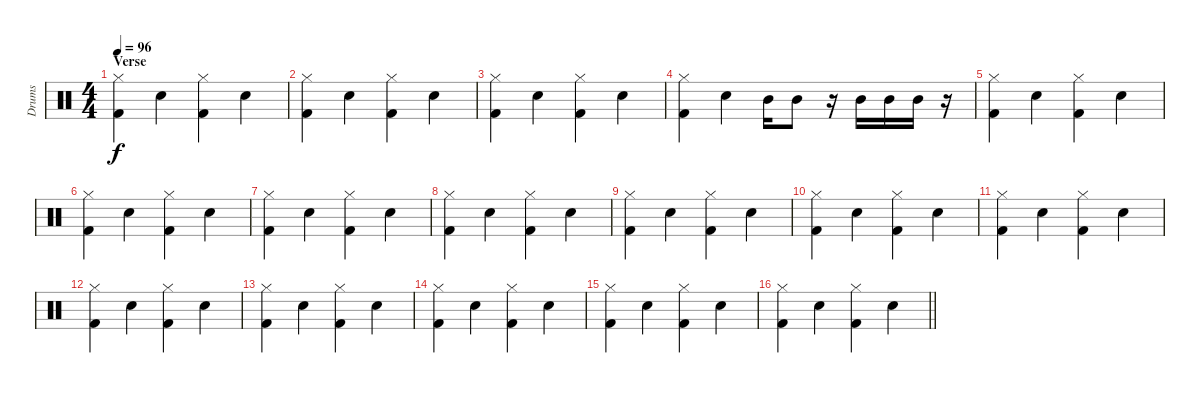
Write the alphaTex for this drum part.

\track ("Drums" "Drums") {instrument percussion}
\staff {score}
\articulation defaults
\ts (4 4)
\section ("" "Verse")
\tempo 96
\clef neutral
\ks c
("Hi-Hat (closed)" "Kick (hit) 2").4{dy f} "Snare (hit) 2".4 ("Hi-Hat (closed)" "Kick (hit) 2").4 "Snare (hit) 2".4 |
("Hi-Hat (closed)" "Kick (hit) 2").4 "Snare (hit) 2".4 ("Hi-Hat (closed)" "Kick (hit) 2").4 "Snare (hit) 2".4 |
("Hi-Hat (closed)" "Kick (hit) 2").4 "Snare (hit) 2".4 ("Hi-Hat (closed)" "Kick (hit) 2").4 "Snare (hit) 2".4 |
("Hi-Hat (closed)" "Kick (hit) 2").4 "Snare (hit) 2".4 "Mid Tom (hit)".16 "Mid Tom (hit)".8 r.16 "Mid Tom (hit)".16 "Mid Tom (hit)".16 "Mid Tom (hit)".16 r.16 |
("Hi-Hat (closed)" "Kick (hit) 2").4 "Snare (hit) 2".4 ("Hi-Hat (closed)" "Kick (hit) 2").4 "Snare (hit) 2".4 |
("Hi-Hat (closed)" "Kick (hit) 2").4 "Snare (hit) 2".4 ("Hi-Hat (closed)" "Kick (hit) 2").4 "Snare (hit) 2".4 |
("Hi-Hat (closed)" "Kick (hit) 2").4 "Snare (hit) 2".4 ("Hi-Hat (closed)" "Kick (hit) 2").4 "Snare (hit) 2".4 |
("Hi-Hat (closed)" "Kick (hit) 2").4 "Snare (hit) 2".4 ("Hi-Hat (closed)" "Kick (hit) 2").4 "Snare (hit) 2".4 |
("Hi-Hat (closed)" "Kick (hit) 2").4 "Snare (hit) 2".4 ("Hi-Hat (closed)" "Kick (hit) 2").4 "Snare (hit) 2".4 |
("Hi-Hat (closed)" "Kick (hit) 2").4 "Snare (hit) 2".4 ("Hi-Hat (closed)" "Kick (hit) 2").4 "Snare (hit) 2".4 |
("Hi-Hat (closed)" "Kick (hit) 2").4 "Snare (hit) 2".4 ("Hi-Hat (closed)" "Kick (hit) 2").4 "Snare (hit) 2".4 |
("Hi-Hat (closed)" "Kick (hit) 2").4 "Snare (hit) 2".4 ("Hi-Hat (closed)" "Kick (hit) 2").4 "Snare (hit) 2".4 |
("Hi-Hat (closed)" "Kick (hit) 2").4 "Snare (hit) 2".4 ("Hi-Hat (closed)" "Kick (hit) 2").4 "Snare (hit) 2".4 |
("Hi-Hat (closed)" "Kick (hit) 2").4 "Snare (hit) 2".4 ("Hi-Hat (closed)" "Kick (hit) 2").4 "Snare (hit) 2".4 |
("Hi-Hat (closed)" "Kick (hit) 2").4 "Snare (hit) 2".4 ("Hi-Hat (closed)" "Kick (hit) 2").4 "Snare (hit) 2".4 |
\barLineRight lightlight
("Hi-Hat (closed)" "Kick (hit) 2").4 "Snare (hit) 2".4 ("Hi-Hat (closed)" "Kick (hit) 2").4 "Snare (hit) 2".4
